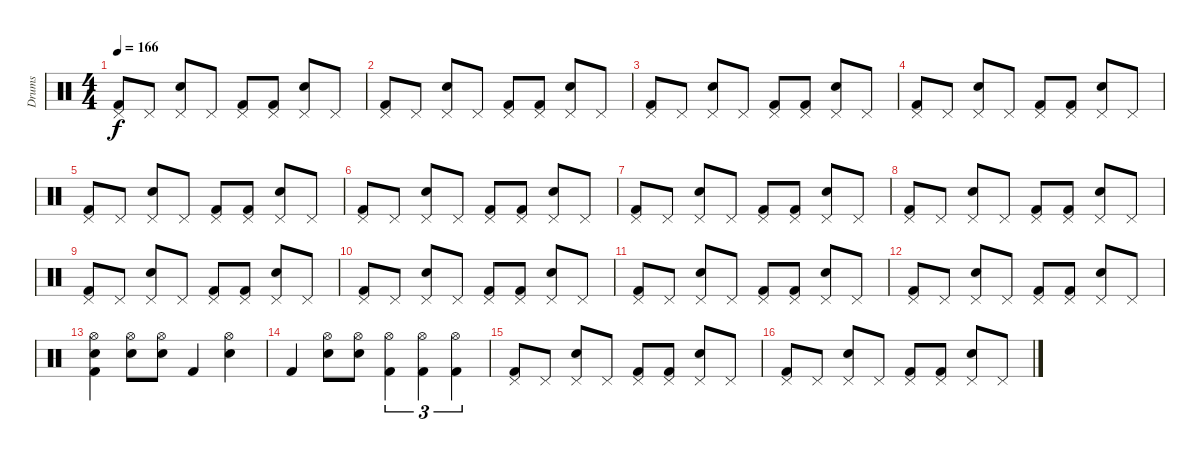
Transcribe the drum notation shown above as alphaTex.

\track ("Drums" "Drums") {instrument percussion}
\staff {score}
\articulation defaults
\ts (4 4)
\tempo 166
\clef neutral
\ks c
("Pedal Hi-Hat (hit)" "Kick (hit) 2").8{dy f} "Pedal Hi-Hat (hit)".8 ("Electric Snare (hit)" "Pedal Hi-Hat (hit)").8 "Pedal Hi-Hat (hit)".8 ("Pedal Hi-Hat (hit)" "Kick (hit) 2").8 ("Pedal Hi-Hat (hit)" "Kick (hit) 2").8 ("Electric Snare (hit)" "Pedal Hi-Hat (hit)").8 "Pedal Hi-Hat (hit)".8 |
("Pedal Hi-Hat (hit)" "Kick (hit) 2").8 "Pedal Hi-Hat (hit)".8 ("Electric Snare (hit)" "Pedal Hi-Hat (hit)").8 "Pedal Hi-Hat (hit)".8 ("Pedal Hi-Hat (hit)" "Kick (hit) 2").8 ("Pedal Hi-Hat (hit)" "Kick (hit) 2").8 ("Electric Snare (hit)" "Pedal Hi-Hat (hit)").8 "Pedal Hi-Hat (hit)".8 |
("Pedal Hi-Hat (hit)" "Kick (hit) 2").8 "Pedal Hi-Hat (hit)".8 ("Electric Snare (hit)" "Pedal Hi-Hat (hit)").8 "Pedal Hi-Hat (hit)".8 ("Pedal Hi-Hat (hit)" "Kick (hit) 2").8 ("Pedal Hi-Hat (hit)" "Kick (hit) 2").8 ("Electric Snare (hit)" "Pedal Hi-Hat (hit)").8 "Pedal Hi-Hat (hit)".8 |
("Pedal Hi-Hat (hit)" "Kick (hit) 2").8 "Pedal Hi-Hat (hit)".8 ("Electric Snare (hit)" "Pedal Hi-Hat (hit)").8 "Pedal Hi-Hat (hit)".8 ("Pedal Hi-Hat (hit)" "Kick (hit) 2").8 ("Pedal Hi-Hat (hit)" "Kick (hit) 2").8 ("Electric Snare (hit)" "Pedal Hi-Hat (hit)").8 "Pedal Hi-Hat (hit)".8 |
("Pedal Hi-Hat (hit)" "Kick (hit) 2").8 "Pedal Hi-Hat (hit)".8 ("Electric Snare (hit)" "Pedal Hi-Hat (hit)").8 "Pedal Hi-Hat (hit)".8 ("Pedal Hi-Hat (hit)" "Kick (hit) 2").8 ("Pedal Hi-Hat (hit)" "Kick (hit) 2").8 ("Electric Snare (hit)" "Pedal Hi-Hat (hit)").8 "Pedal Hi-Hat (hit)".8 |
("Pedal Hi-Hat (hit)" "Kick (hit) 2").8 "Pedal Hi-Hat (hit)".8 ("Electric Snare (hit)" "Pedal Hi-Hat (hit)").8 "Pedal Hi-Hat (hit)".8 ("Pedal Hi-Hat (hit)" "Kick (hit) 2").8 ("Pedal Hi-Hat (hit)" "Kick (hit) 2").8 ("Electric Snare (hit)" "Pedal Hi-Hat (hit)").8 "Pedal Hi-Hat (hit)".8 |
("Pedal Hi-Hat (hit)" "Kick (hit) 2").8 "Pedal Hi-Hat (hit)".8 ("Electric Snare (hit)" "Pedal Hi-Hat (hit)").8 "Pedal Hi-Hat (hit)".8 ("Pedal Hi-Hat (hit)" "Kick (hit) 2").8 ("Pedal Hi-Hat (hit)" "Kick (hit) 2").8 ("Electric Snare (hit)" "Pedal Hi-Hat (hit)").8 "Pedal Hi-Hat (hit)".8 |
("Pedal Hi-Hat (hit)" "Kick (hit) 2").8 "Pedal Hi-Hat (hit)".8 ("Electric Snare (hit)" "Pedal Hi-Hat (hit)").8 "Pedal Hi-Hat (hit)".8 ("Pedal Hi-Hat (hit)" "Kick (hit) 2").8 ("Pedal Hi-Hat (hit)" "Kick (hit) 2").8 ("Electric Snare (hit)" "Pedal Hi-Hat (hit)").8 "Pedal Hi-Hat (hit)".8 |
("Pedal Hi-Hat (hit)" "Kick (hit) 2").8 "Pedal Hi-Hat (hit)".8 ("Electric Snare (hit)" "Pedal Hi-Hat (hit)").8 "Pedal Hi-Hat (hit)".8 ("Pedal Hi-Hat (hit)" "Kick (hit) 2").8 ("Pedal Hi-Hat (hit)" "Kick (hit) 2").8 ("Electric Snare (hit)" "Pedal Hi-Hat (hit)").8 "Pedal Hi-Hat (hit)".8 |
("Pedal Hi-Hat (hit)" "Kick (hit) 2").8 "Pedal Hi-Hat (hit)".8 ("Electric Snare (hit)" "Pedal Hi-Hat (hit)").8 "Pedal Hi-Hat (hit)".8 ("Pedal Hi-Hat (hit)" "Kick (hit) 2").8 ("Pedal Hi-Hat (hit)" "Kick (hit) 2").8 ("Electric Snare (hit)" "Pedal Hi-Hat (hit)").8 "Pedal Hi-Hat (hit)".8 |
("Pedal Hi-Hat (hit)" "Kick (hit) 2").8 "Pedal Hi-Hat (hit)".8 ("Electric Snare (hit)" "Pedal Hi-Hat (hit)").8 "Pedal Hi-Hat (hit)".8 ("Pedal Hi-Hat (hit)" "Kick (hit) 2").8 ("Pedal Hi-Hat (hit)" "Kick (hit) 2").8 ("Electric Snare (hit)" "Pedal Hi-Hat (hit)").8 "Pedal Hi-Hat (hit)".8 |
("Pedal Hi-Hat (hit)" "Kick (hit) 2").8 "Pedal Hi-Hat (hit)".8 ("Electric Snare (hit)" "Pedal Hi-Hat (hit)").8 "Pedal Hi-Hat (hit)".8 ("Pedal Hi-Hat (hit)" "Kick (hit) 2").8 ("Pedal Hi-Hat (hit)" "Kick (hit) 2").8 ("Electric Snare (hit)" "Pedal Hi-Hat (hit)").8 "Pedal Hi-Hat (hit)".8 |
("Electric Snare (hit)" "Hi-Hat (open)" "Kick (hit) 2").4 ("Electric Snare (hit)" "Hi-Hat (open)").8 ("Electric Snare (hit)" "Hi-Hat (open)").8 "Kick (hit) 2".4 ("Electric Snare (hit)" "Hi-Hat (open)").4 |
"Kick (hit) 2".4 ("Electric Snare (hit)" "Hi-Hat (open)").8 ("Electric Snare (hit)" "Hi-Hat (open)").8 ("Hi-Hat (open)" "Kick (hit) 2").4{tu (3 2)} ("Hi-Hat (open)" "Kick (hit) 2").4{tu (3 2)} ("Hi-Hat (open)" "Kick (hit) 2").4{tu (3 2)} |
("Pedal Hi-Hat (hit)" "Kick (hit) 2").8 "Pedal Hi-Hat (hit)".8 ("Electric Snare (hit)" "Pedal Hi-Hat (hit)").8 "Pedal Hi-Hat (hit)".8 ("Pedal Hi-Hat (hit)" "Kick (hit) 2").8 ("Pedal Hi-Hat (hit)" "Kick (hit) 2").8 ("Electric Snare (hit)" "Pedal Hi-Hat (hit)").8 "Pedal Hi-Hat (hit)".8 |
("Pedal Hi-Hat (hit)" "Kick (hit) 2").8 "Pedal Hi-Hat (hit)".8 ("Electric Snare (hit)" "Pedal Hi-Hat (hit)").8 "Pedal Hi-Hat (hit)".8 ("Pedal Hi-Hat (hit)" "Kick (hit) 2").8 ("Pedal Hi-Hat (hit)" "Kick (hit) 2").8 ("Electric Snare (hit)" "Pedal Hi-Hat (hit)").8 "Pedal Hi-Hat (hit)".8
